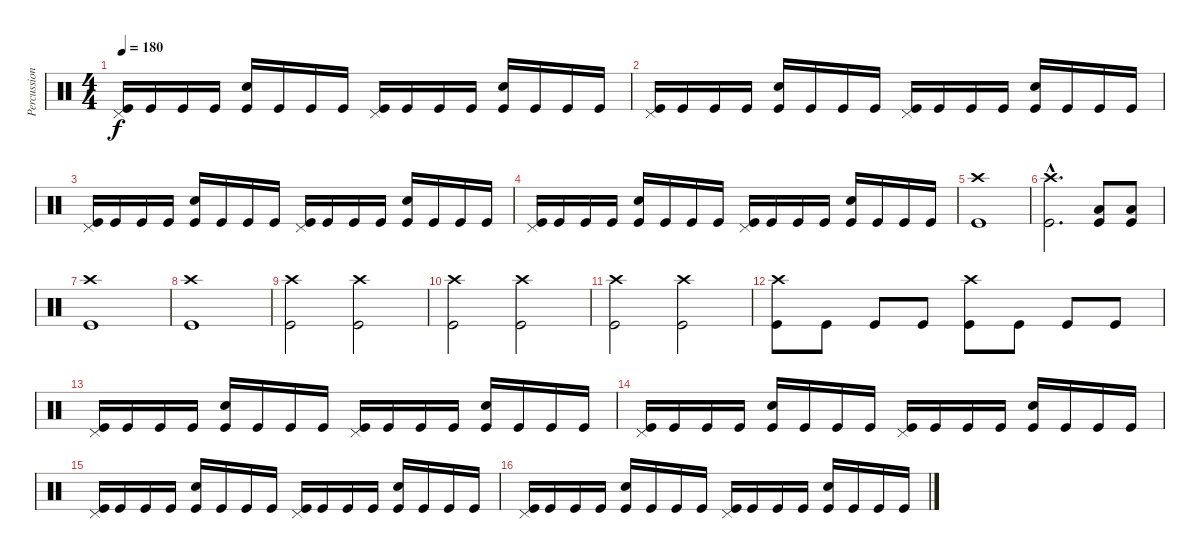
\track ("Percussion" "Percussion") {instrument percussion}
\staff {score}
\articulation defaults
\ts (4 4)
\tempo 180
\clef neutral
\ks c
("Pedal Hi-Hat (hit)" "Kick (hit)").16{dy f} "Kick (hit)".16 "Kick (hit)".16 "Kick (hit)".16 ("Electric Snare (hit)" "Kick (hit)").16 "Kick (hit)".16 "Kick (hit)".16 "Kick (hit)".16 ("Pedal Hi-Hat (hit)" "Kick (hit)").16 "Kick (hit)".16 "Kick (hit)".16 "Kick (hit)".16 ("Electric Snare (hit)" "Kick (hit)").16 "Kick (hit)".16 "Kick (hit)".16 "Kick (hit)".16 |
("Pedal Hi-Hat (hit)" "Kick (hit)").16 "Kick (hit)".16 "Kick (hit)".16 "Kick (hit)".16 ("Electric Snare (hit)" "Kick (hit)").16 "Kick (hit)".16 "Kick (hit)".16 "Kick (hit)".16 ("Pedal Hi-Hat (hit)" "Kick (hit)").16 "Kick (hit)".16 "Kick (hit)".16 "Kick (hit)".16 ("Electric Snare (hit)" "Kick (hit)").16 "Kick (hit)".16 "Kick (hit)".16 "Kick (hit)".16 |
("Pedal Hi-Hat (hit)" "Kick (hit)").16 "Kick (hit)".16 "Kick (hit)".16 "Kick (hit)".16 ("Electric Snare (hit)" "Kick (hit)").16 "Kick (hit)".16 "Kick (hit)".16 "Kick (hit)".16 ("Pedal Hi-Hat (hit)" "Kick (hit)").16 "Kick (hit)".16 "Kick (hit)".16 "Kick (hit)".16 ("Electric Snare (hit)" "Kick (hit)").16 "Kick (hit)".16 "Kick (hit)".16 "Kick (hit)".16 |
("Pedal Hi-Hat (hit)" "Kick (hit)").16 "Kick (hit)".16 "Kick (hit)".16 "Kick (hit)".16 ("Electric Snare (hit)" "Kick (hit)").16 "Kick (hit)".16 "Kick (hit)".16 "Kick (hit)".16 ("Pedal Hi-Hat (hit)" "Kick (hit)").16 "Kick (hit)".16 "Kick (hit)".16 "Kick (hit)".16 ("Electric Snare (hit)" "Kick (hit)").16 "Kick (hit)".16 "Kick (hit)".16 "Kick (hit)".16 |
("Crash high (hit)" "Kick (hit)").1 |
("Crash high (hit)"{hac} "Kick (hit)"{hac}).2{d} ("Low Floor Tom (hit)" "Kick (hit)").8 ("Low Tom (hit)" "Kick (hit)").8 |
("Crash high (hit)" "Kick (hit)").1 |
("Crash high (hit)" "Kick (hit)").1 |
("Crash high (hit)" "Kick (hit)").2 ("Crash high (hit)" "Kick (hit)").2 |
("Crash high (hit)" "Kick (hit)").2 ("Crash high (hit)" "Kick (hit)").2 |
("Crash high (hit)" "Kick (hit)").2 ("Crash high (hit)" "Kick (hit)").2 |
("Crash high (hit)" "Kick (hit)").8 "Kick (hit)".8 "Kick (hit)".8 "Kick (hit)".8 ("Crash high (hit)" "Kick (hit)").8 "Kick (hit)".8 "Kick (hit)".8 "Kick (hit)".8 |
("Pedal Hi-Hat (hit)" "Kick (hit)").16 "Kick (hit)".16 "Kick (hit)".16 "Kick (hit)".16 ("Electric Snare (hit)" "Kick (hit)").16 "Kick (hit)".16 "Kick (hit)".16 "Kick (hit)".16 ("Pedal Hi-Hat (hit)" "Kick (hit)").16 "Kick (hit)".16 "Kick (hit)".16 "Kick (hit)".16 ("Electric Snare (hit)" "Kick (hit)").16 "Kick (hit)".16 "Kick (hit)".16 "Kick (hit)".16 |
("Pedal Hi-Hat (hit)" "Kick (hit)").16 "Kick (hit)".16 "Kick (hit)".16 "Kick (hit)".16 ("Electric Snare (hit)" "Kick (hit)").16 "Kick (hit)".16 "Kick (hit)".16 "Kick (hit)".16 ("Pedal Hi-Hat (hit)" "Kick (hit)").16 "Kick (hit)".16 "Kick (hit)".16 "Kick (hit)".16 ("Electric Snare (hit)" "Kick (hit)").16 "Kick (hit)".16 "Kick (hit)".16 "Kick (hit)".16 |
("Pedal Hi-Hat (hit)" "Kick (hit)").16 "Kick (hit)".16 "Kick (hit)".16 "Kick (hit)".16 ("Electric Snare (hit)" "Kick (hit)").16 "Kick (hit)".16 "Kick (hit)".16 "Kick (hit)".16 ("Pedal Hi-Hat (hit)" "Kick (hit)").16 "Kick (hit)".16 "Kick (hit)".16 "Kick (hit)".16 ("Electric Snare (hit)" "Kick (hit)").16 "Kick (hit)".16 "Kick (hit)".16 "Kick (hit)".16 |
("Pedal Hi-Hat (hit)" "Kick (hit)").16 "Kick (hit)".16 "Kick (hit)".16 "Kick (hit)".16 ("Electric Snare (hit)" "Kick (hit)").16 "Kick (hit)".16 "Kick (hit)".16 "Kick (hit)".16 ("Pedal Hi-Hat (hit)" "Kick (hit)").16 "Kick (hit)".16 "Kick (hit)".16 "Kick (hit)".16 ("Electric Snare (hit)" "Kick (hit)").16 "Kick (hit)".16 "Kick (hit)".16 "Kick (hit)".16
